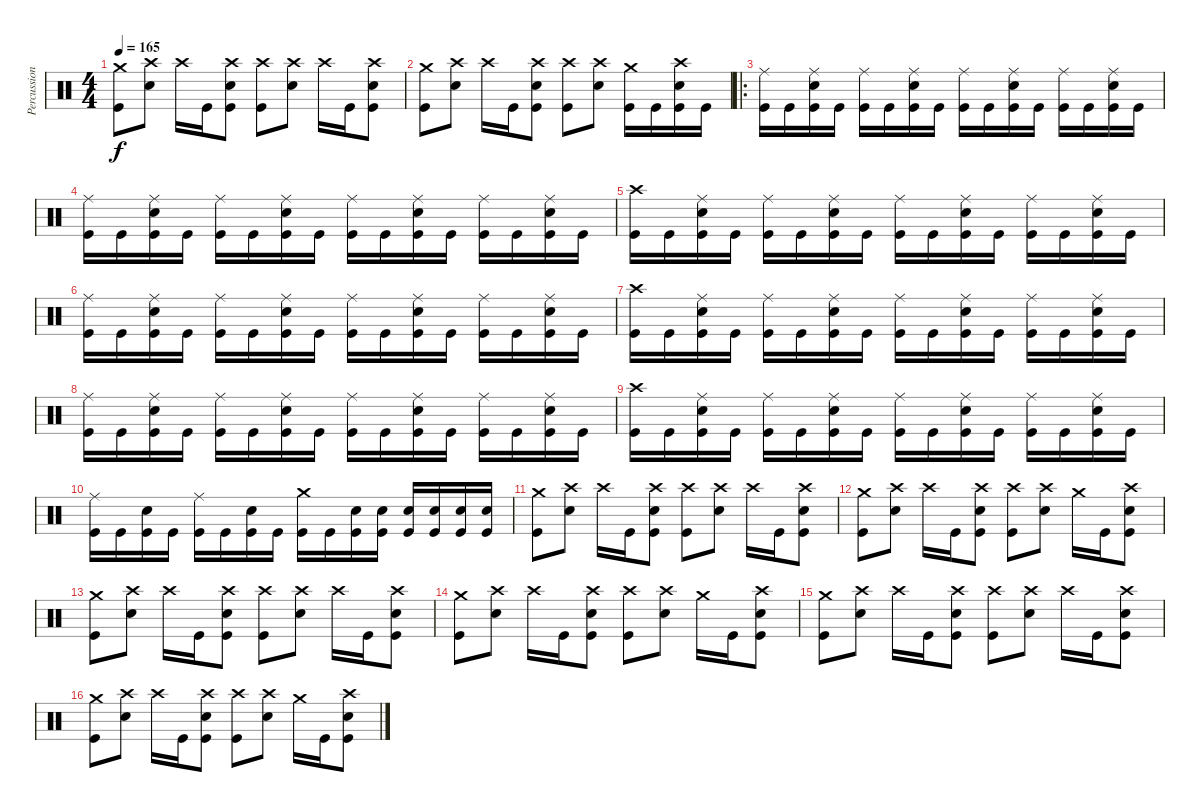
\track ("Percussion" "Percussion") {instrument percussion}
\staff {score}
\articulation defaults
\ts (4 4)
\tempo 165
\clef neutral
\ks c
("Crash medium (hit)" "Kick (hit)").8{dy f} ("Crash high (hit)" "Snare (hit) 2").8 "Crash high (hit)".16 "Kick (hit)".16 ("Crash high (hit)" "Snare (hit) 2" "Kick (hit)").8 ("Crash high (hit)" "Kick (hit)").8 ("Crash high (hit)" "Snare (hit) 2").8 "Crash high (hit)".16 "Kick (hit)".16 ("Crash high (hit)" "Snare (hit) 2" "Kick (hit)").8 |
("Crash medium (hit)" "Kick (hit)").8 ("Crash high (hit)" "Snare (hit) 2").8 "Crash high (hit)".16 "Kick (hit)".16 ("Crash high (hit)" "Snare (hit) 2" "Kick (hit)").8 ("Crash high (hit)" "Kick (hit)").8 ("Crash high (hit)" "Snare (hit) 2").8 ("Crash medium (hit)" "Kick (hit)").16 "Kick (hit)".16 ("Crash high (hit)" "Snare (hit) 2" "Kick (hit)").16 "Kick (hit)".16 |
\ro
("Ride (middle)" "Kick (hit)").16 "Kick (hit)".16 ("Ride (middle)" "Snare (hit) 2" "Kick (hit)").16 "Kick (hit)".16 ("Ride (middle)" "Kick (hit)").16 "Kick (hit)".16 ("Ride (middle)" "Snare (hit) 2" "Kick (hit)").16 "Kick (hit)".16 ("Ride (middle)" "Kick (hit)").16 "Kick (hit)".16 ("Ride (middle)" "Snare (hit) 2" "Kick (hit)").16 "Kick (hit)".16 ("Ride (middle)" "Kick (hit)").16 "Kick (hit)".16 ("Ride (middle)" "Snare (hit) 2" "Kick (hit)").16 "Kick (hit)".16 |
("Ride (middle)" "Kick (hit)").16 "Kick (hit)".16 ("Ride (middle)" "Snare (hit) 2" "Kick (hit)").16 "Kick (hit)".16 ("Ride (middle)" "Kick (hit)").16 "Kick (hit)".16 ("Ride (middle)" "Snare (hit) 2" "Kick (hit)").16 "Kick (hit)".16 ("Ride (middle)" "Kick (hit)").16 "Kick (hit)".16 ("Ride (middle)" "Snare (hit) 2" "Kick (hit)").16 "Kick (hit)".16 ("Ride (middle)" "Kick (hit)").16 "Kick (hit)".16 ("Ride (middle)" "Snare (hit) 2" "Kick (hit)").16 "Kick (hit)".16 |
("Crash high (hit)" "Kick (hit)").16 "Kick (hit)".16 ("Ride (middle)" "Snare (hit) 2" "Kick (hit)").16 "Kick (hit)".16 ("Ride (middle)" "Kick (hit)").16 "Kick (hit)".16 ("Ride (middle)" "Snare (hit) 2" "Kick (hit)").16 "Kick (hit)".16 ("Ride (middle)" "Kick (hit)").16 "Kick (hit)".16 ("Ride (middle)" "Snare (hit) 2" "Kick (hit)").16 "Kick (hit)".16 ("Ride (middle)" "Kick (hit)").16 "Kick (hit)".16 ("Ride (middle)" "Snare (hit) 2" "Kick (hit)").16 "Kick (hit)".16 |
("Ride (middle)" "Kick (hit)").16 "Kick (hit)".16 ("Ride (middle)" "Snare (hit) 2" "Kick (hit)").16 "Kick (hit)".16 ("Ride (middle)" "Kick (hit)").16 "Kick (hit)".16 ("Ride (middle)" "Snare (hit) 2" "Kick (hit)").16 "Kick (hit)".16 ("Ride (middle)" "Kick (hit)").16 "Kick (hit)".16 ("Ride (middle)" "Snare (hit) 2" "Kick (hit)").16 "Kick (hit)".16 ("Ride (middle)" "Kick (hit)").16 "Kick (hit)".16 ("Ride (middle)" "Snare (hit) 2" "Kick (hit)").16 "Kick (hit)".16 |
("Crash high (hit)" "Kick (hit)").16 "Kick (hit)".16 ("Ride (middle)" "Snare (hit) 2" "Kick (hit)").16 "Kick (hit)".16 ("Ride (middle)" "Kick (hit)").16 "Kick (hit)".16 ("Ride (middle)" "Snare (hit) 2" "Kick (hit)").16 "Kick (hit)".16 ("Ride (middle)" "Kick (hit)").16 "Kick (hit)".16 ("Ride (middle)" "Snare (hit) 2" "Kick (hit)").16 "Kick (hit)".16 ("Ride (middle)" "Kick (hit)").16 "Kick (hit)".16 ("Ride (middle)" "Snare (hit) 2" "Kick (hit)").16 "Kick (hit)".16 |
("Ride (middle)" "Kick (hit)").16 "Kick (hit)".16 ("Ride (middle)" "Snare (hit) 2" "Kick (hit)").16 "Kick (hit)".16 ("Ride (middle)" "Kick (hit)").16 "Kick (hit)".16 ("Ride (middle)" "Snare (hit) 2" "Kick (hit)").16 "Kick (hit)".16 ("Ride (middle)" "Kick (hit)").16 "Kick (hit)".16 ("Ride (middle)" "Snare (hit) 2" "Kick (hit)").16 "Kick (hit)".16 ("Ride (middle)" "Kick (hit)").16 "Kick (hit)".16 ("Ride (middle)" "Snare (hit) 2" "Kick (hit)").16 "Kick (hit)".16 |
("Crash high (hit)" "Kick (hit)").16 "Kick (hit)".16 ("Ride (middle)" "Snare (hit) 2" "Kick (hit)").16 "Kick (hit)".16 ("Ride (middle)" "Kick (hit)").16 "Kick (hit)".16 ("Ride (middle)" "Snare (hit) 2" "Kick (hit)").16 "Kick (hit)".16 ("Ride (middle)" "Kick (hit)").16 "Kick (hit)".16 ("Ride (middle)" "Snare (hit) 2" "Kick (hit)").16 "Kick (hit)".16 ("Ride (middle)" "Kick (hit)").16 "Kick (hit)".16 ("Ride (middle)" "Snare (hit) 2" "Kick (hit)").16 "Kick (hit)".16 |
("Ride (middle)" "Kick (hit)").16 "Kick (hit)".16 ("Snare (hit) 2" "Kick (hit)").16 "Kick (hit)".16 ("Ride (middle)" "Kick (hit)").16 "Kick (hit)".16 ("Snare (hit) 2" "Kick (hit)").16 "Kick (hit)".16 ("Crash medium (hit)" "Kick (hit)").16 "Kick (hit)".16 ("Snare (hit) 2" "Kick (hit)").16 ("Snare (hit) 2" "Kick (hit)").16 ("Snare (hit) 2" "Kick (hit)").16 ("Snare (hit) 2" "Kick (hit)").16 ("Snare (hit) 2" "Kick (hit)").16 ("Snare (hit) 2" "Kick (hit)").16 |
("Crash medium (hit)" "Kick (hit)").8 ("Crash high (hit)" "Snare (hit) 2").8 "Crash high (hit)".16 "Kick (hit)".16 ("Crash high (hit)" "Snare (hit) 2" "Kick (hit)").8 ("Crash high (hit)" "Kick (hit)").8 ("Crash high (hit)" "Snare (hit) 2").8 "Crash high (hit)".16 "Kick (hit)".16 ("Crash high (hit)" "Snare (hit) 2" "Kick (hit)").8 |
("Crash medium (hit)" "Kick (hit)").8 ("Crash high (hit)" "Snare (hit) 2").8 "Crash high (hit)".16 "Kick (hit)".16 ("Crash high (hit)" "Snare (hit) 2" "Kick (hit)").8 ("Crash high (hit)" "Kick (hit)").8 ("Crash high (hit)" "Snare (hit) 2").8 "Crash medium (hit)".16 "Kick (hit)".16 ("Crash high (hit)" "Snare (hit) 2" "Kick (hit)").8 |
("Crash medium (hit)" "Kick (hit)").8 ("Crash high (hit)" "Snare (hit) 2").8 "Crash high (hit)".16 "Kick (hit)".16 ("Crash high (hit)" "Snare (hit) 2" "Kick (hit)").8 ("Crash high (hit)" "Kick (hit)").8 ("Crash high (hit)" "Snare (hit) 2").8 "Crash high (hit)".16 "Kick (hit)".16 ("Crash high (hit)" "Snare (hit) 2" "Kick (hit)").8 |
("Crash medium (hit)" "Kick (hit)").8 ("Crash high (hit)" "Snare (hit) 2").8 "Crash high (hit)".16 "Kick (hit)".16 ("Crash high (hit)" "Snare (hit) 2" "Kick (hit)").8 ("Crash high (hit)" "Kick (hit)").8 ("Crash high (hit)" "Snare (hit) 2").8 "Crash medium (hit)".16 "Kick (hit)".16 ("Crash high (hit)" "Snare (hit) 2" "Kick (hit)").8 |
("Crash medium (hit)" "Kick (hit)").8 ("Crash high (hit)" "Snare (hit) 2").8 "Crash high (hit)".16 "Kick (hit)".16 ("Crash high (hit)" "Snare (hit) 2" "Kick (hit)").8 ("Crash high (hit)" "Kick (hit)").8 ("Crash high (hit)" "Snare (hit) 2").8 "Crash high (hit)".16 "Kick (hit)".16 ("Crash high (hit)" "Snare (hit) 2" "Kick (hit)").8 |
("Crash medium (hit)" "Kick (hit)").8 ("Crash high (hit)" "Snare (hit) 2").8 "Crash high (hit)".16 "Kick (hit)".16 ("Crash high (hit)" "Snare (hit) 2" "Kick (hit)").8 ("Crash high (hit)" "Kick (hit)").8 ("Crash high (hit)" "Snare (hit) 2").8 "Crash medium (hit)".16 "Kick (hit)".16 ("Crash high (hit)" "Snare (hit) 2" "Kick (hit)").8
